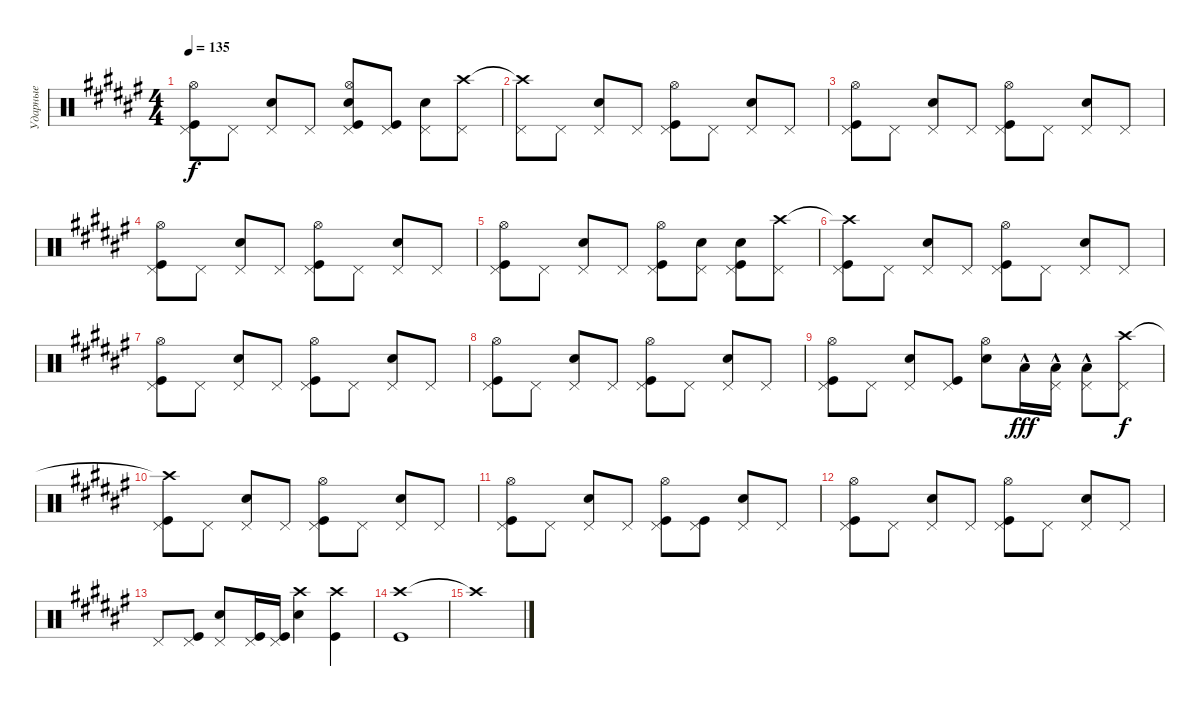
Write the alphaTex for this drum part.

\track ("Ударные" "Ударные") {instrument percussion}
\staff {score}
\articulation defaults
\ts (4 4)
\tempo 135
\clef neutral
\ks d#minor
("Pedal Hi-Hat (hit)" "Kick (hit)" "Hi-Hat (open)").8{dy f} "Pedal Hi-Hat (hit)".8 ("Pedal Hi-Hat (hit)" "Snare (hit) 2").8 "Pedal Hi-Hat (hit)".8 ("Pedal Hi-Hat (hit)" "Kick (hit)" "Hi-Hat (open)" "Snare (hit) 2").8 ("Pedal Hi-Hat (hit)" "Kick (hit)").8 ("Pedal Hi-Hat (hit)" "Snare (hit) 2").8 ("Pedal Hi-Hat (hit)" "Crash high (hit)").8 |
("Pedal Hi-Hat (hit)" "Crash high (hit)"{t}).8 "Pedal Hi-Hat (hit)".8 ("Pedal Hi-Hat (hit)" "Snare (hit) 2").8 "Pedal Hi-Hat (hit)".8 ("Pedal Hi-Hat (hit)" "Kick (hit)" "Hi-Hat (open)").8 "Pedal Hi-Hat (hit)".8 ("Pedal Hi-Hat (hit)" "Snare (hit) 2").8 "Pedal Hi-Hat (hit)".8 |
("Pedal Hi-Hat (hit)" "Kick (hit)" "Hi-Hat (open)").8 "Pedal Hi-Hat (hit)".8 ("Pedal Hi-Hat (hit)" "Snare (hit) 2").8 "Pedal Hi-Hat (hit)".8 ("Pedal Hi-Hat (hit)" "Kick (hit)" "Hi-Hat (open)").8 "Pedal Hi-Hat (hit)".8 ("Pedal Hi-Hat (hit)" "Snare (hit) 2").8 "Pedal Hi-Hat (hit)".8 |
("Pedal Hi-Hat (hit)" "Kick (hit)" "Hi-Hat (open)").8 "Pedal Hi-Hat (hit)".8 ("Pedal Hi-Hat (hit)" "Snare (hit) 2").8 "Pedal Hi-Hat (hit)".8 ("Pedal Hi-Hat (hit)" "Kick (hit)" "Hi-Hat (open)").8 "Pedal Hi-Hat (hit)".8 ("Pedal Hi-Hat (hit)" "Snare (hit) 2").8 "Pedal Hi-Hat (hit)".8 |
("Pedal Hi-Hat (hit)" "Kick (hit)" "Hi-Hat (open)").8 "Pedal Hi-Hat (hit)".8 ("Pedal Hi-Hat (hit)" "Snare (hit) 2").8 "Pedal Hi-Hat (hit)".8 ("Kick (hit)" "Pedal Hi-Hat (hit)" "Hi-Hat (open)").8 ("Pedal Hi-Hat (hit)" "Snare (hit) 2").8 ("Pedal Hi-Hat (hit)" "Kick (hit)" "Snare (hit) 2").8 ("Crash high (hit)" "Pedal Hi-Hat (hit)").8 |
("Crash high (hit)"{t} "Pedal Hi-Hat (hit)" "Kick (hit)").8 "Pedal Hi-Hat (hit)".8 ("Pedal Hi-Hat (hit)" "Snare (hit) 2").8 "Pedal Hi-Hat (hit)".8 ("Pedal Hi-Hat (hit)" "Kick (hit)" "Hi-Hat (open)").8 "Pedal Hi-Hat (hit)".8 ("Pedal Hi-Hat (hit)" "Snare (hit) 2").8 "Pedal Hi-Hat (hit)".8 |
("Pedal Hi-Hat (hit)" "Kick (hit)" "Hi-Hat (open)").8 "Pedal Hi-Hat (hit)".8 ("Pedal Hi-Hat (hit)" "Snare (hit) 2").8 "Pedal Hi-Hat (hit)".8 ("Pedal Hi-Hat (hit)" "Kick (hit)" "Hi-Hat (open)").8 "Pedal Hi-Hat (hit)".8 ("Pedal Hi-Hat (hit)" "Snare (hit) 2").8 "Pedal Hi-Hat (hit)".8 |
("Pedal Hi-Hat (hit)" "Kick (hit)" "Hi-Hat (open)").8 "Pedal Hi-Hat (hit)".8 ("Pedal Hi-Hat (hit)" "Snare (hit) 2").8 "Pedal Hi-Hat (hit)".8 ("Pedal Hi-Hat (hit)" "Kick (hit)" "Hi-Hat (open)").8 "Pedal Hi-Hat (hit)".8 ("Pedal Hi-Hat (hit)" "Snare (hit) 2").8 "Pedal Hi-Hat (hit)".8 |
("Pedal Hi-Hat (hit)" "Kick (hit)" "Hi-Hat (open)").8 "Pedal Hi-Hat (hit)".8 ("Pedal Hi-Hat (hit)" "Snare (hit) 2").8 ("Pedal Hi-Hat (hit)" "Kick (hit)").8 ("Hi-Hat (open)" "Snare (hit) 2").8 "Low Tom (hit)"{hac}.16{dy fff} ("Pedal Hi-Hat (hit)" "Low Tom (hit)"{hac}).16 ("Pedal Hi-Hat (hit)" "Low Tom (hit)"{hac}).8 ("Crash high (hit)" "Pedal Hi-Hat (hit)").8{dy f} |
("Crash high (hit)"{t} "Pedal Hi-Hat (hit)" "Kick (hit)").8 "Pedal Hi-Hat (hit)".8 ("Pedal Hi-Hat (hit)" "Snare (hit) 2").8 "Pedal Hi-Hat (hit)".8 ("Pedal Hi-Hat (hit)" "Kick (hit)" "Hi-Hat (open)").8 "Pedal Hi-Hat (hit)".8 ("Pedal Hi-Hat (hit)" "Snare (hit) 2").8 "Pedal Hi-Hat (hit)".8 |
("Pedal Hi-Hat (hit)" "Kick (hit)" "Hi-Hat (open)").8 "Pedal Hi-Hat (hit)".8 ("Pedal Hi-Hat (hit)" "Snare (hit) 2").8 "Pedal Hi-Hat (hit)".8 ("Pedal Hi-Hat (hit)" "Kick (hit)" "Hi-Hat (open)").8 ("Pedal Hi-Hat (hit)" "Kick (hit)").8 ("Pedal Hi-Hat (hit)" "Snare (hit) 2").8 "Pedal Hi-Hat (hit)".8 |
("Pedal Hi-Hat (hit)" "Kick (hit)" "Hi-Hat (open)").8 "Pedal Hi-Hat (hit)".8 ("Pedal Hi-Hat (hit)" "Snare (hit) 2").8 "Pedal Hi-Hat (hit)".8 ("Pedal Hi-Hat (hit)" "Kick (hit)" "Hi-Hat (open)").8 "Pedal Hi-Hat (hit)".8 ("Pedal Hi-Hat (hit)" "Snare (hit) 2").8 "Pedal Hi-Hat (hit)".8 |
"Pedal Hi-Hat (hit)".8 ("Pedal Hi-Hat (hit)" "Kick (hit)").8 ("Pedal Hi-Hat (hit)" "Snare (hit) 2").8 ("Pedal Hi-Hat (hit)" "Kick (hit)").16 ("Pedal Hi-Hat (hit)" "Kick (hit)").16 ("Snare (hit) 2" "Crash high (hit)").4 ("Crash high (hit)" "Kick (hit)").4 |
("Crash high (hit)" "Kick (hit)").1 |
"Crash high (hit)"{t}.1
